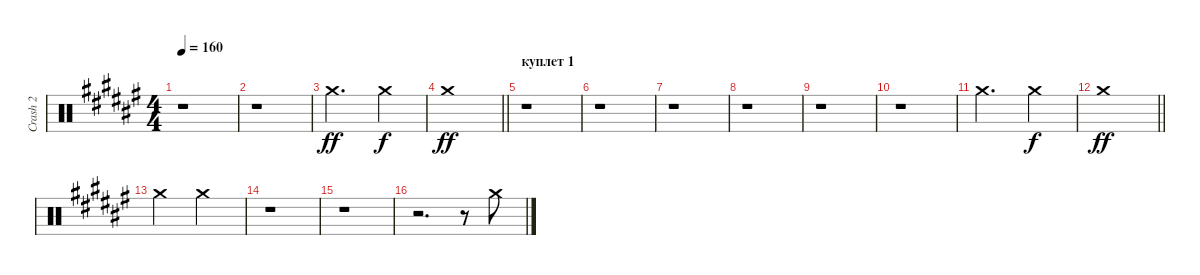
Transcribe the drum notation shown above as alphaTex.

\track ("Crash 2" "Crash 2") {instrument percussion}
\staff {score}
\articulation defaults
\ts (4 4)
\tempo 160
\clef neutral
\ks d#minor
r.1{dy ff} |
r.1 |
"Crash medium (hit)".2{d} "Crash medium (hit)".4{dy f} |
\barLineRight lightlight "Crash medium (hit)".1{dy ff}
|
\section ("" "куплет 1")
r.1 |
r.1 |
r.1 |
r.1 |
r.1 |
r.1 |
"Crash medium (hit)".2{d} "Crash medium (hit)".4{dy f} |
\barLineRight lightlight "Crash medium (hit)".1{dy ff}
|
"Crash medium (hit)".2 "Crash medium (hit)".2 |
r.1 |
r.1 |
r.2{d} r.8 "Crash medium (hit)".8
